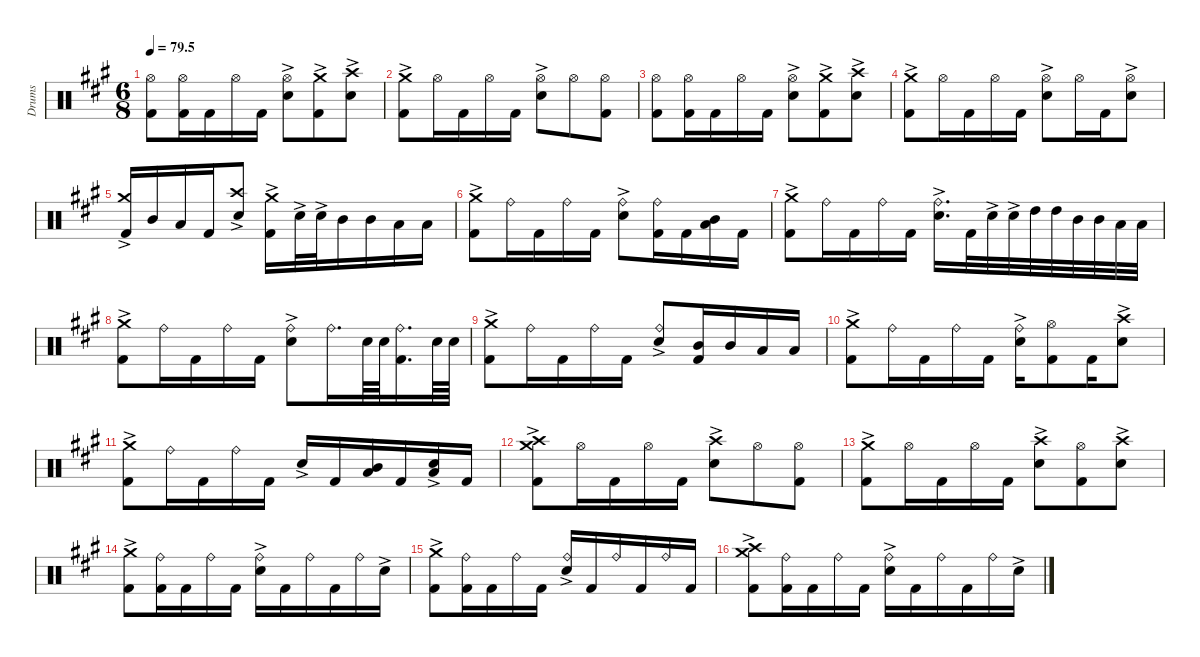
\defaultSystemsLayout 4
\hideDynamics
\bracketExtendMode nobrackets
\otherSystemsTrackNameOrientation horizontal
\track ("Drumkit (don't unmute)" "Drums") {mute instrument percussion}
\staff {score}
\articulation defaults
\ts (6 8)
\tempo
79.5
\accidentals auto
\clef neutral
\ottava regular
\simile none
\ks a
("Hi-Hat (open)"{acc forcenatural} "Kick (hit) 2"{acc forcenatural}).8{dy f beam Down} ("Hi-Hat (open)"{acc forcenatural} "Kick (hit) 2"{acc forcenatural}).16{beam Down} "Kick (hit) 2"{acc forcenatural}.16{beam Down} "Hi-Hat (open)"{acc forcenatural}.16{beam Down} "Kick (hit) 2"{acc forcenatural}.16{beam Down} ("Snare (hit) 2"{ac acc forcenatural} "Hi-Hat (open)"{acc forcenatural}).8{beam Down} ("Kick (hit) 2"{acc forcenatural} "Crash medium (hit)"{ac acc forcenatural}).8{beam Down} ("Snare (hit) 2"{ac acc forcenatural} "Crash high (hit)"{acc forcenatural}).8{beam Down} |
("Crash medium (hit)"{ac acc forcenatural} "Kick (hit) 2"{acc forcenatural}).8{beam Down} "Hi-Hat (open)"{acc forcenatural}.16{beam Down} "Kick (hit) 2"{acc forcenatural}.16{beam Down} "Hi-Hat (open)"{acc forcenatural}.16{beam Down} "Kick (hit) 2"{acc forcenatural}.16{beam Down} ("Hi-Hat (open)"{acc forcenatural} "Snare (hit) 2"{ac acc forcenatural}).8{beam Down} "Hi-Hat (open)"{acc forcenatural}.8{beam Down} ("Hi-Hat (open)"{acc forcenatural} "Kick (hit) 2"{acc forcenatural}).8{beam Down} |
("Hi-Hat (open)"{acc forcenatural} "Kick (hit) 2"{acc forcenatural}).8{beam Down} ("Hi-Hat (open)"{acc forcenatural} "Kick (hit) 2"{acc forcenatural}).16{beam Down} "Kick (hit) 2"{acc forcenatural}.16{beam Down} "Hi-Hat (open)"{acc forcenatural}.16{beam Down} "Kick (hit) 2"{acc forcenatural}.16{beam Down} ("Snare (hit) 2"{ac acc forcenatural} "Hi-Hat (open)"{acc forcenatural}).8{beam Down} ("Kick (hit) 2"{acc forcenatural} "Crash medium (hit)"{ac acc forcenatural}).8{beam Down} ("Snare (hit) 2"{ac acc forcenatural} "Crash high (hit)"{acc forcenatural}).8{beam Down} |
\scale
0.349521 ("Crash medium (hit)"{ac acc forcenatural} "Kick (hit) 2"{acc forcenatural}).8{beam Down} "Hi-Hat (open)"{acc forcenatural}.16{beam Down} "Kick (hit) 2"{acc forcenatural}.16{beam Down} "Hi-Hat (open)"{acc forcenatural}.16{beam Down} "Kick (hit) 2"{acc forcenatural}.16{beam Down} ("Hi-Hat (open)"{acc forcenatural} "Snare (hit) 2"{ac acc forcenatural}).8{beam Down} "Hi-Hat (open)"{acc forcenatural}.16{beam Down} "Kick (hit) 2"{acc forcenatural}.16{beam Down} ("Hi-Hat (open)"{acc forcenatural} "Snare (hit) 2"{ac acc forcenatural}).8{beam Down} |
\scale
0.330568 ("Crash medium (hit)"{ac acc forcenatural} "Kick (hit) 2"{acc forcenatural}).16{beam Up} "Mid Tom (hit)"{acc forcenatural}.16{beam Up} "Low Tom (hit)"{acc forcenatural}.16{beam Up} "Kick (hit) 2"{acc forcenatural}.16{beam Up} ("Crash high (hit)"{acc forcenatural} "Snare (hit) 2"{ac acc forcenatural}).8{beam Up} ("Crash medium (hit)"{ac acc forcenatural} "Kick (hit) 2"{acc forcenatural}).16{beam Down} "Snare (hit) 2"{ac acc forcenatural}.32{beam Down} "Snare (hit) 2"{ac acc forcenatural}.32{beam Down} "Mid Tom (hit)"{acc forcenatural}.16{beam Down} "Mid Tom (hit)"{acc forcenatural}.16{beam Down} "Low Tom (hit)"{acc forcenatural}.16{beam Down} "Low Tom (hit)"{acc forcenatural}.16{beam Down} |
\scale
0.31993 ("Crash medium (hit)"{ac acc forcenatural} "Kick (hit) 2"{acc forcenatural}).8{beam Down} "Ride (bell)"{acc forcenatural}.16{beam Down} "Kick (hit) 2"{acc forcenatural}.16{beam Down} "Ride (bell)"{acc forcenatural}.16{beam Down} "Kick (hit) 2"{acc forcenatural}.16{beam Down} ("Ride (bell)"{acc forcenatural} "Snare (hit) 2"{ac acc forcenatural}).8{beam Down} ("Ride (bell)"{acc forcenatural} "Kick (hit) 2"{acc forcenatural}).16{beam Down} "Kick (hit) 2"{acc forcenatural}.16{beam Down} ("Mid Tom (hit)"{acc forcenatural} "Low Tom (hit)"{acc forcenatural}).16{beam Down} "Kick (hit) 2"{acc forcenatural}.16{beam Down} |
("Crash medium (hit)"{ac acc forcenatural} "Kick (hit) 2"{acc forcenatural}).8{beam Down} "Ride (bell)"{acc forcenatural}.16{beam Down} "Kick (hit) 2"{acc forcenatural}.16{beam Down} "Ride (bell)"{acc forcenatural}.16{beam Down} "Kick (hit) 2"{acc forcenatural}.16{beam Down} ("Ride (bell)"{acc forcenatural} "Snare (hit) 2"{ac acc forcenatural}).16{d beam Down} "Kick (hit) 2"{acc forcenatural}.32{beam Down} "Snare (hit) 2"{ac acc forcenatural}.32{beam Down} "Snare (hit) 2"{ac acc forcenatural}.32{beam Down} "High Tom (hit)"{acc forcenatural}.32{beam Down} "High Tom (hit)"{acc forcenatural}.32{beam Down} "Mid Tom (hit)"{acc forcenatural}.32{beam Down} "Mid Tom (hit)"{acc forcenatural}.32{beam Down} "Low Tom (hit)"{acc forcenatural}.32{beam Down} "Low Tom (hit)"{acc forcenatural}.32{beam Down} |
("Crash medium (hit)"{ac acc forcenatural} "Kick (hit) 2"{acc forcenatural}).8{beam Down} "Ride (bell)"{acc forcenatural}.16{beam Down} "Kick (hit) 2"{acc forcenatural}.16{beam Down} "Ride (bell)"{acc forcenatural}.16{beam Down} "Kick (hit) 2"{acc forcenatural}.16{beam Down} ("Ride (bell)"{acc forcenatural} "Snare (hit) 2"{ac acc forcenatural}).8{beam Down} "Ride (bell)"{acc forcenatural}.16{d beam Down} "Snare (hit) 2"{acc forcenatural}.64{beam Down} "Snare (hit) 2"{acc forcenatural}.64{beam Down} ("Ride (bell)"{acc forcenatural} "Kick (hit) 2"{acc forcenatural}).16{d beam Down} "Snare (hit) 2"{acc forcenatural}.64{beam Down} "Snare (hit) 2"{acc forcenatural}.64{beam Down} |
("Crash medium (hit)"{ac acc forcenatural} "Kick (hit) 2"{acc forcenatural}).8{beam Down} "Ride (bell)"{acc forcenatural}.16{beam Down} "Kick (hit) 2"{acc forcenatural}.16{beam Down} "Ride (bell)"{acc forcenatural}.16{beam Down} "Kick (hit) 2"{acc forcenatural}.16{beam Down} ("Ride (bell)"{acc forcenatural} "Snare (hit) 2"{ac acc forcenatural}).8{beam Up} ("Mid Tom (hit)"{acc forcenatural} "Kick (hit) 2"{acc forcenatural}).16{beam Up} "Mid Tom (hit)"{acc forcenatural}.16{beam Up} "Low Tom (hit)"{acc forcenatural}.16{beam Up} "Low Tom (hit)"{acc forcenatural}.16{beam Up} |
("Crash medium (hit)"{ac acc forcenatural} "Kick (hit) 2"{acc forcenatural}).8{beam Down} "Ride (bell)"{acc forcenatural}.16{beam Down} "Kick (hit) 2"{acc forcenatural}.16{beam Down} "Ride (bell)"{acc forcenatural}.16{beam Down} "Kick (hit) 2"{acc forcenatural}.16{beam Down} ("Ride (bell)"{acc forcenatural} "Snare (hit) 2"{ac acc forcenatural}).16{beam Down} ("Hi-Hat (open)"{acc forcenatural} "Kick (hit) 2"{acc forcenatural}).8{beam Down} "Kick (hit) 2"{acc forcenatural}.16{beam Down} ("Crash high (hit)"{acc forcenatural} "Snare (hit) 2"{ac acc forcenatural}).8{beam Down} |
("Crash medium (hit)"{ac acc forcenatural} "Kick (hit) 2"{acc forcenatural}).8{beam Down} "Ride (bell)"{acc forcenatural}.16{beam Down} "Kick (hit) 2"{acc forcenatural}.16{beam Down} "Ride (bell)"{acc forcenatural}.16{beam Down} "Kick (hit) 2"{acc forcenatural}.16{beam Down} "Snare (hit) 2"{ac acc forcenatural}.16{beam Up} "Kick (hit) 2"{acc forcenatural}.16{beam Up} ("Mid Tom (hit)"{acc forcenatural} "Low Tom (hit)"{acc forcenatural}).16{beam Up} "Kick (hit) 2"{acc forcenatural}.16{beam Up} ("Snare (hit) 2"{ac acc forcenatural} "Low Tom (hit)"{acc forcenatural}).16{beam Up} "Kick (hit) 2"{acc forcenatural}.16{beam Up} |
("Crash medium (hit)"{ac acc forcenatural} "Crash high (hit)"{acc forcenatural} "Kick (hit) 2"{acc forcenatural}).8{beam Down} "Hi-Hat (open)"{acc forcenatural}.16{beam Down} "Kick (hit) 2"{acc forcenatural}.16{beam Down} "Hi-Hat (open)"{acc forcenatural}.16{beam Down} "Kick (hit) 2"{acc forcenatural}.16{beam Down} ("Crash high (hit)"{acc forcenatural} "Snare (hit) 2"{ac acc forcenatural}).8{beam Down} "Hi-Hat (open)"{acc forcenatural}.8{beam Down} ("Hi-Hat (open)"{acc forcenatural} "Kick (hit) 2"{acc forcenatural}).8{beam Down} |
("Crash medium (hit)"{ac acc forcenatural} "Kick (hit) 2"{acc forcenatural}).8{beam Down} "Hi-Hat (open)"{acc forcenatural}.16{beam Down} "Kick (hit) 2"{acc forcenatural}.16{beam Down} "Hi-Hat (open)"{acc forcenatural}.16{beam Down} "Kick (hit) 2"{acc forcenatural}.16{beam Down} ("Crash high (hit)"{acc forcenatural} "Snare (hit) 2"{ac acc forcenatural}).8{beam Down} ("Hi-Hat (open)"{acc forcenatural} "Kick (hit) 2"{acc forcenatural}).8{beam Down} ("Snare (hit) 2"{ac acc forcenatural} "Crash high (hit)"{acc forcenatural}).8{beam Down} |
("Crash medium (hit)"{ac acc forcenatural} "Kick (hit) 2"{acc forcenatural}).8{beam Down} ("Ride (bell)"{acc forcenatural} "Kick (hit) 2"{acc forcenatural}).16{beam Down} "Kick (hit) 2"{acc forcenatural}.16{beam Down} "Ride (bell)"{acc forcenatural}.16{beam Down} "Kick (hit) 2"{acc forcenatural}.16{beam Down} ("Ride (bell)"{acc forcenatural} "Snare (hit) 2"{ac acc forcenatural}).16{beam Down} "Kick (hit) 2"{acc forcenatural}.16{beam Down} "Ride (bell)"{acc forcenatural}.16{beam Down} "Kick (hit) 2"{acc forcenatural}.16{beam Down} "Ride (bell)"{acc forcenatural}.16{beam Down} "Snare (hit) 2"{ac acc forcenatural}.16{beam Down} |
("Crash medium (hit)"{ac acc forcenatural} "Kick (hit) 2"{acc forcenatural}).8{beam Down} ("Ride (bell)"{acc forcenatural} "Kick (hit) 2"{acc forcenatural}).16{beam Down} "Kick (hit) 2"{acc forcenatural}.16{beam Down} "Ride (bell)"{acc forcenatural}.16{beam Down} "Kick (hit) 2"{acc forcenatural}.16{beam Down} ("Ride (bell)"{acc forcenatural} "Snare (hit) 2"{ac acc forcenatural}).16{beam Up} "Kick (hit) 2"{acc forcenatural}.16{beam Up} "Ride (bell)"{acc forcenatural}.16{beam Up} "Kick (hit) 2"{acc forcenatural}.16{beam Up} "Ride (bell)"{acc forcenatural}.16{beam Up} "Kick (hit) 2"{acc forcenatural}.16{beam Up} |
("Crash medium (hit)"{ac acc forcenatural} "Crash high (hit)"{acc forcenatural} "Kick (hit) 2"{acc forcenatural}).8{beam Down} ("Ride (bell)"{acc forcenatural} "Kick (hit) 2"{acc forcenatural}).16{beam Down} "Kick (hit) 2"{acc forcenatural}.16{beam Down} "Ride (bell)"{acc forcenatural}.16{beam Down} "Kick (hit) 2"{acc forcenatural}.16{beam Down} ("Ride (bell)"{acc forcenatural} "Snare (hit) 2"{ac acc forcenatural}).16{beam Down} "Kick (hit) 2"{acc forcenatural}.16{beam Down} "Ride (bell)"{acc forcenatural}.16{beam Down} "Kick (hit) 2"{acc forcenatural}.16{beam Down} "Ride (bell)"{acc forcenatural}.16{beam Down} "Snare (hit) 2"{ac acc forcenatural}.16{beam Down}
